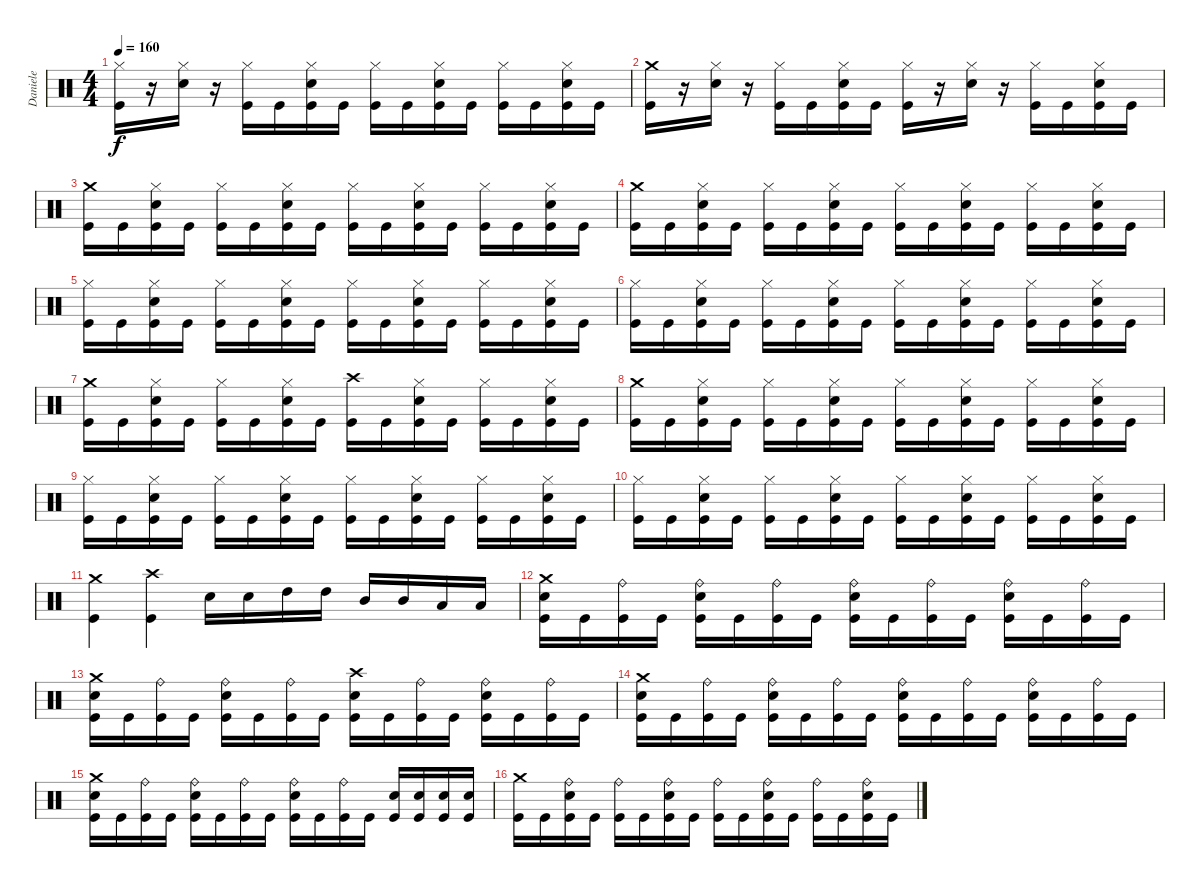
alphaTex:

\track ("Daniele" "Daniele") {instrument percussion}
\staff {score}
\articulation defaults
\ts (4 4)
\tempo 160
\clef neutral
\ks c
("Kick (hit)" "Hi-Hat (closed)").16{dy f} r.16 ("Electric Snare (hit)" "Hi-Hat (closed)").16 r.16 ("Kick (hit)" "Hi-Hat (closed)").16 "Kick (hit)".16 ("Kick (hit)" "Electric Snare (hit)" "Hi-Hat (closed)").16 "Kick (hit)".16 ("Kick (hit)" "Hi-Hat (closed)").16 "Kick (hit)".16 ("Kick (hit)" "Electric Snare (hit)" "Hi-Hat (closed)").16 "Kick (hit)".16 ("Kick (hit)" "Hi-Hat (closed)").16 "Kick (hit)".16 ("Kick (hit)" "Electric Snare (hit)" "Hi-Hat (closed)").16 "Kick (hit)".16 |
("Kick (hit)" "Crash medium (hit)").16 r.16 ("Electric Snare (hit)" "Hi-Hat (closed)").16 r.16 ("Kick (hit)" "Hi-Hat (closed)").16 "Kick (hit)".16 ("Kick (hit)" "Electric Snare (hit)" "Hi-Hat (closed)").16 "Kick (hit)".16 ("Kick (hit)" "Hi-Hat (closed)").16 r.16 ("Electric Snare (hit)" "Hi-Hat (closed)").16 r.16 ("Kick (hit)" "Hi-Hat (closed)").16 "Kick (hit)".16 ("Kick (hit)" "Electric Snare (hit)" "Hi-Hat (closed)").16 "Kick (hit)".16 |
("Kick (hit)" "Crash medium (hit)").16 "Kick (hit)".16 ("Kick (hit)" "Electric Snare (hit)" "Hi-Hat (closed)").16 "Kick (hit)".16 ("Kick (hit)" "Hi-Hat (closed)").16 "Kick (hit)".16 ("Kick (hit)" "Electric Snare (hit)" "Hi-Hat (closed)").16 "Kick (hit)".16 ("Kick (hit)" "Hi-Hat (closed)").16 "Kick (hit)".16 ("Kick (hit)" "Electric Snare (hit)" "Hi-Hat (closed)").16 "Kick (hit)".16 ("Kick (hit)" "Hi-Hat (closed)").16 "Kick (hit)".16 ("Kick (hit)" "Electric Snare (hit)" "Hi-Hat (closed)").16 "Kick (hit)".16 |
("Kick (hit)" "Crash medium (hit)").16 "Kick (hit)".16 ("Kick (hit)" "Electric Snare (hit)" "Hi-Hat (closed)").16 "Kick (hit)".16 ("Kick (hit)" "Hi-Hat (closed)").16 "Kick (hit)".16 ("Kick (hit)" "Electric Snare (hit)" "Hi-Hat (closed)").16 "Kick (hit)".16 ("Kick (hit)" "Hi-Hat (closed)").16 "Kick (hit)".16 ("Kick (hit)" "Electric Snare (hit)" "Hi-Hat (closed)").16 "Kick (hit)".16 ("Kick (hit)" "Hi-Hat (closed)").16 "Kick (hit)".16 ("Kick (hit)" "Electric Snare (hit)" "Hi-Hat (closed)").16 "Kick (hit)".16 |
("Kick (hit)" "Hi-Hat (closed)").16 "Kick (hit)".16 ("Kick (hit)" "Electric Snare (hit)" "Hi-Hat (closed)").16 "Kick (hit)".16 ("Kick (hit)" "Hi-Hat (closed)").16 "Kick (hit)".16 ("Kick (hit)" "Electric Snare (hit)" "Hi-Hat (closed)").16 "Kick (hit)".16 ("Kick (hit)" "Hi-Hat (closed)").16 "Kick (hit)".16 ("Kick (hit)" "Electric Snare (hit)" "Hi-Hat (closed)").16 "Kick (hit)".16 ("Kick (hit)" "Hi-Hat (closed)").16 "Kick (hit)".16 ("Kick (hit)" "Electric Snare (hit)" "Hi-Hat (closed)").16 "Kick (hit)".16 |
("Kick (hit)" "Hi-Hat (closed)").16 "Kick (hit)".16 ("Kick (hit)" "Electric Snare (hit)" "Hi-Hat (closed)").16 "Kick (hit)".16 ("Kick (hit)" "Hi-Hat (closed)").16 "Kick (hit)".16 ("Kick (hit)" "Electric Snare (hit)" "Hi-Hat (closed)").16 "Kick (hit)".16 ("Kick (hit)" "Hi-Hat (closed)").16 "Kick (hit)".16 ("Kick (hit)" "Electric Snare (hit)" "Hi-Hat (closed)").16 "Kick (hit)".16 ("Kick (hit)" "Hi-Hat (closed)").16 "Kick (hit)".16 ("Kick (hit)" "Electric Snare (hit)" "Hi-Hat (closed)").16 "Kick (hit)".16 |
("Kick (hit)" "Crash medium (hit)").16 "Kick (hit)".16 ("Kick (hit)" "Electric Snare (hit)" "Hi-Hat (closed)").16 "Kick (hit)".16 ("Kick (hit)" "Hi-Hat (closed)").16 "Kick (hit)".16 ("Kick (hit)" "Electric Snare (hit)" "Hi-Hat (closed)").16 "Kick (hit)".16 ("Kick (hit)" "Crash high (hit)").16 "Kick (hit)".16 ("Kick (hit)" "Electric Snare (hit)" "Hi-Hat (closed)").16 "Kick (hit)".16 ("Kick (hit)" "Hi-Hat (closed)").16 "Kick (hit)".16 ("Kick (hit)" "Electric Snare (hit)" "Hi-Hat (closed)").16 "Kick (hit)".16 |
("Kick (hit)" "Crash medium (hit)").16 "Kick (hit)".16 ("Kick (hit)" "Electric Snare (hit)" "Hi-Hat (closed)").16 "Kick (hit)".16 ("Kick (hit)" "Hi-Hat (closed)").16 "Kick (hit)".16 ("Kick (hit)" "Electric Snare (hit)" "Hi-Hat (closed)").16 "Kick (hit)".16 ("Kick (hit)" "Hi-Hat (closed)").16 "Kick (hit)".16 ("Kick (hit)" "Electric Snare (hit)" "Hi-Hat (closed)").16 "Kick (hit)".16 ("Kick (hit)" "Hi-Hat (closed)").16 "Kick (hit)".16 ("Kick (hit)" "Electric Snare (hit)" "Hi-Hat (closed)").16 "Kick (hit)".16 |
("Kick (hit)" "Hi-Hat (closed)").16 "Kick (hit)".16 ("Kick (hit)" "Electric Snare (hit)" "Hi-Hat (closed)").16 "Kick (hit)".16 ("Kick (hit)" "Hi-Hat (closed)").16 "Kick (hit)".16 ("Kick (hit)" "Electric Snare (hit)" "Hi-Hat (closed)").16 "Kick (hit)".16 ("Kick (hit)" "Hi-Hat (closed)").16 "Kick (hit)".16 ("Kick (hit)" "Electric Snare (hit)" "Hi-Hat (closed)").16 "Kick (hit)".16 ("Kick (hit)" "Hi-Hat (closed)").16 "Kick (hit)".16 ("Kick (hit)" "Electric Snare (hit)" "Hi-Hat (closed)").16 "Kick (hit)".16 |
("Kick (hit)" "Hi-Hat (closed)").16 "Kick (hit)".16 ("Kick (hit)" "Electric Snare (hit)" "Hi-Hat (closed)").16 "Kick (hit)".16 ("Kick (hit)" "Hi-Hat (closed)").16 "Kick (hit)".16 ("Kick (hit)" "Electric Snare (hit)" "Hi-Hat (closed)").16 "Kick (hit)".16 ("Kick (hit)" "Hi-Hat (closed)").16 "Kick (hit)".16 ("Kick (hit)" "Electric Snare (hit)" "Hi-Hat (closed)").16 "Kick (hit)".16 ("Kick (hit)" "Hi-Hat (closed)").16 "Kick (hit)".16 ("Kick (hit)" "Electric Snare (hit)" "Hi-Hat (closed)").16 "Kick (hit)".16 |
("Kick (hit)" "Crash medium (hit)").4 ("Kick (hit)" "Crash high (hit)").4 "Electric Snare (hit)".16 "Electric Snare (hit)".16 "High Tom (hit)".16 "High Tom (hit)".16 "Mid Tom (hit)".16 "Mid Tom (hit)".16 "Low Tom (hit)".16 "Low Tom (hit)".16 |
("Kick (hit)" "Electric Snare (hit)" "Crash medium (hit)").16 "Kick (hit)".16 ("Kick (hit)" "Ride (bell)").16 "Kick (hit)".16 ("Kick (hit)" "Electric Snare (hit)" "Ride (bell)").16 "Kick (hit)".16 ("Kick (hit)" "Ride (bell)").16 "Kick (hit)".16 ("Kick (hit)" "Electric Snare (hit)" "Ride (bell)").16 "Kick (hit)".16 ("Kick (hit)" "Ride (bell)").16 "Kick (hit)".16 ("Kick (hit)" "Electric Snare (hit)" "Ride (bell)").16 "Kick (hit)".16 ("Kick (hit)" "Ride (bell)").16 "Kick (hit)".16 |
("Kick (hit)" "Electric Snare (hit)" "Crash medium (hit)").16 "Kick (hit)".16 ("Kick (hit)" "Ride (bell)").16 "Kick (hit)".16 ("Kick (hit)" "Electric Snare (hit)" "Ride (bell)").16 "Kick (hit)".16 ("Kick (hit)" "Ride (bell)").16 "Kick (hit)".16 ("Kick (hit)" "Electric Snare (hit)" "Crash high (hit)").16 "Kick (hit)".16 ("Kick (hit)" "Ride (bell)").16 "Kick (hit)".16 ("Kick (hit)" "Electric Snare (hit)" "Ride (bell)").16 "Kick (hit)".16 ("Kick (hit)" "Ride (bell)").16 "Kick (hit)".16 |
("Kick (hit)" "Electric Snare (hit)" "Crash medium (hit)").16 "Kick (hit)".16 ("Kick (hit)" "Ride (bell)").16 "Kick (hit)".16 ("Kick (hit)" "Electric Snare (hit)" "Ride (bell)").16 "Kick (hit)".16 ("Kick (hit)" "Ride (bell)").16 "Kick (hit)".16 ("Kick (hit)" "Electric Snare (hit)" "Ride (bell)").16 "Kick (hit)".16 ("Kick (hit)" "Ride (bell)").16 "Kick (hit)".16 ("Kick (hit)" "Electric Snare (hit)" "Ride (bell)").16 "Kick (hit)".16 ("Kick (hit)" "Ride (bell)").16 "Kick (hit)".16 |
("Kick (hit)" "Electric Snare (hit)" "Crash medium (hit)").16 "Kick (hit)".16 ("Kick (hit)" "Ride (bell)").16 "Kick (hit)".16 ("Kick (hit)" "Electric Snare (hit)" "Ride (bell)").16 "Kick (hit)".16 ("Kick (hit)" "Ride (bell)").16 "Kick (hit)".16 ("Kick (hit)" "Electric Snare (hit)" "Ride (bell)").16 "Kick (hit)".16 ("Kick (hit)" "Ride (bell)").16 "Kick (hit)".16 ("Kick (hit)" "Electric Snare (hit)").16 ("Kick (hit)" "Electric Snare (hit)").16 ("Kick (hit)" "Electric Snare (hit)").16 ("Kick (hit)" "Electric Snare (hit)").16 |
("Kick (hit)" "Crash medium (hit)").16 "Kick (hit)".16 ("Kick (hit)" "Electric Snare (hit)" "Ride (bell)").16 "Kick (hit)".16 ("Kick (hit)" "Ride (bell)").16 "Kick (hit)".16 ("Kick (hit)" "Electric Snare (hit)" "Ride (bell)").16 "Kick (hit)".16 ("Kick (hit)" "Ride (bell)").16 "Kick (hit)".16 ("Kick (hit)" "Electric Snare (hit)" "Ride (bell)").16 "Kick (hit)".16 ("Kick (hit)" "Ride (bell)").16 "Kick (hit)".16 ("Kick (hit)" "Electric Snare (hit)" "Ride (bell)").16 "Kick (hit)".16
